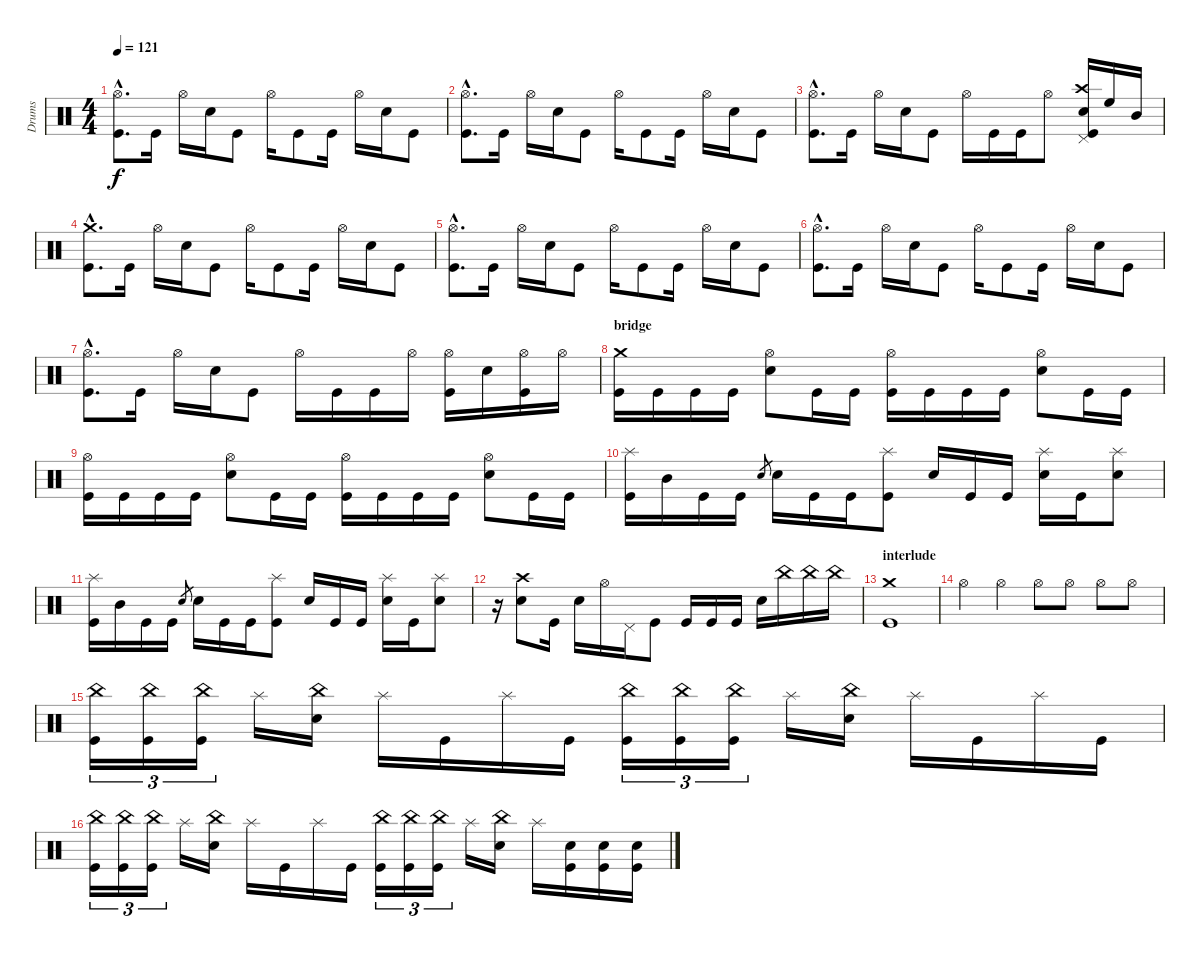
\track ("Drums" "Drums") {instrument percussion}
\staff {score}
\articulation defaults
\ts (4 4)
\tempo 121
\clef neutral
\ks c
("Kick (hit)"{hac} "Hi-Hat (open)"{hac}).8{d dy f} "Kick (hit)".16 "Hi-Hat (open)".16 "Electric Snare (hit)".16 "Kick (hit)".8 "Hi-Hat (open)".16 "Kick (hit)".8 "Kick (hit)".16 "Hi-Hat (open)".16 "Electric Snare (hit)".16 "Kick (hit)".8 |
("Kick (hit)"{hac} "Hi-Hat (open)"{hac}).8{d} "Kick (hit)".16 "Hi-Hat (open)".16 "Electric Snare (hit)".16 "Kick (hit)".8 "Hi-Hat (open)".16 "Kick (hit)".8 "Kick (hit)".16 "Hi-Hat (open)".16 "Electric Snare (hit)".16 "Kick (hit)".8 |
("Kick (hit)"{hac} "Hi-Hat (open)"{hac}).8{d} "Kick (hit)".16 "Hi-Hat (open)".16 "Electric Snare (hit)".16 "Kick (hit)".8 "Hi-Hat (open)".16 "Kick (hit)".16 "Kick (hit)".16 "Hi-Hat (open)".8 ("Kick (hit)" "Electric Snare (hit)" "Crash high (hit)" "Pedal Hi-Hat (hit)").16 "High Floor Tom (hit)".16 "Mid Tom (hit)".16 |
("Kick (hit)"{hac} "Crash medium (hit)"{hac}).8{d} "Kick (hit)".16 "Hi-Hat (open)".16 "Electric Snare (hit)".16 "Kick (hit)".8 "Hi-Hat (open)".16 "Kick (hit)".8 "Kick (hit)".16 "Hi-Hat (open)".16 "Electric Snare (hit)".16 "Kick (hit)".8 |
("Kick (hit)"{hac} "Hi-Hat (open)"{hac}).8{d} "Kick (hit)".16 "Hi-Hat (open)".16 "Electric Snare (hit)".16 "Kick (hit)".8 "Hi-Hat (open)".16 "Kick (hit)".8 "Kick (hit)".16 "Hi-Hat (open)".16 "Electric Snare (hit)".16 "Kick (hit)".8 |
("Kick (hit)"{hac} "Hi-Hat (open)"{hac}).8{d} "Kick (hit)".16 "Hi-Hat (open)".16 "Electric Snare (hit)".16 "Kick (hit)".8 "Hi-Hat (open)".16 "Kick (hit)".8 "Kick (hit)".16 "Hi-Hat (open)".16 "Electric Snare (hit)".16 "Kick (hit)".8 |
("Kick (hit)"{hac} "Hi-Hat (open)"{hac}).8{d} "Kick (hit)".16 "Hi-Hat (open)".16 "Electric Snare (hit)".16 "Kick (hit)".8 "Hi-Hat (open)".16 "Kick (hit)".16 "Kick (hit)".16 "Hi-Hat (open)".16 ("Kick (hit)" "Hi-Hat (open)").16 "Electric Snare (hit)".16 ("Kick (hit)" "Hi-Hat (open)").16 "Hi-Hat (open)".16 |
\section ("" "bridge")
("Kick (hit)" "Crash medium (hit)").16 "Kick (hit)".16 "Kick (hit)".16 "Kick (hit)".16 ("Electric Snare (hit)" "Hi-Hat (open)").8 "Kick (hit)".16 "Kick (hit)".16 ("Kick (hit)" "Hi-Hat (open)").16 "Kick (hit)".16 "Kick (hit)".16 "Kick (hit)".16 ("Electric Snare (hit)" "Hi-Hat (open)").8 "Kick (hit)".16 "Kick (hit)".16 |
("Kick (hit)" "Hi-Hat (open)").16 "Kick (hit)".16 "Kick (hit)".16 "Kick (hit)".16 ("Electric Snare (hit)" "Hi-Hat (open)").8 "Kick (hit)".16 "Kick (hit)".16 ("Kick (hit)" "Hi-Hat (open)").16 "Kick (hit)".16 "Kick (hit)".16 "Kick (hit)".16 ("Electric Snare (hit)" "Hi-Hat (open)").8 "Kick (hit)".16 "Kick (hit)".16 |
("Kick (hit)" "Splash (hit)").16 "Mid Tom (hit)".16 "Kick (hit)".16 "Kick (hit)".16 "Electric Snare (hit)".8{gr} "Electric Snare (hit)".16 "Kick (hit)".16 "Kick (hit)".16 ("Kick (hit)" "Splash (hit)").8 "Electric Snare (hit)".16 "Kick (hit)".16 "Kick (hit)".16 ("Electric Snare (hit)" "Splash (hit)").16 "Kick (hit)".16 ("Electric Snare (hit)" "Splash (hit)").8 |
("Kick (hit)" "Splash (hit)").16 "Mid Tom (hit)".16 "Kick (hit)".16 "Kick (hit)".16 "Electric Snare (hit)".8{gr} "Electric Snare (hit)".16 "Kick (hit)".16 "Kick (hit)".16 ("Kick (hit)" "Splash (hit)").8 "Electric Snare (hit)".16 "Kick (hit)".16 "Kick (hit)".16 ("Electric Snare (hit)" "Splash (hit)").16 "Kick (hit)".16 ("Electric Snare (hit)" "Splash (hit)").8 |
r.16 ("Electric Snare (hit)" "Crash high (hit)").8 "Kick (hit)".16 "Electric Snare (hit)".16 "Hi-Hat (open)".16 "Pedal Hi-Hat (hit)".16 "Kick (hit)".8 "Kick (hit)".16 "Kick (hit)".16 "Kick (hit)".16 "Electric Snare (hit)".16 "China (hit)".16 "China (hit)".16 "China (hit)".16 |
\section ("" "interlude")
("Kick (hit)" "Crash medium (hit)").1 |
"Hi-Hat (open)".4 "Hi-Hat (open)".4 "Hi-Hat (open)".8 "Hi-Hat (open)".8 "Hi-Hat (open)".8 "Hi-Hat (open)".8 |
("Kick (hit)" "China (hit)").16{tu (3 2)} ("Kick (hit)" "China (hit)").16{tu (3 2)} ("Kick (hit)" "China (hit)").16{tu (3 2)} "Splash (hit)".16 ("Electric Snare (hit)" "China (hit)").16 "Splash (hit)".16 "Kick (hit)".16 "Splash (hit)".16 "Kick (hit)".16 ("Kick (hit)" "China (hit)").16{tu (3 2)} ("Kick (hit)" "China (hit)").16{tu (3 2)} ("Kick (hit)" "China (hit)").16{tu (3 2)} "Splash (hit)".16 ("Electric Snare (hit)" "China (hit)").16 "Splash (hit)".16 "Kick (hit)".16 "Splash (hit)".16 "Kick (hit)".16 |
("Kick (hit)" "China (hit)").16{tu (3 2)} ("Kick (hit)" "China (hit)").16{tu (3 2)} ("Kick (hit)" "China (hit)").16{tu (3 2)} "Splash (hit)".16 ("Electric Snare (hit)" "China (hit)").16 "Splash (hit)".16 "Kick (hit)".16 "Splash (hit)".16 "Kick (hit)".16 ("Kick (hit)" "China (hit)").16{tu (3 2)} ("Kick (hit)" "China (hit)").16{tu (3 2)} ("Kick (hit)" "China (hit)").16{tu (3 2)} "Splash (hit)".16 ("Electric Snare (hit)" "China (hit)").16 "Splash (hit)".16 ("Kick (hit)" "Electric Snare (hit)").16 ("Kick (hit)" "Electric Snare (hit)").16 ("Kick (hit)" "Electric Snare (hit)").16
